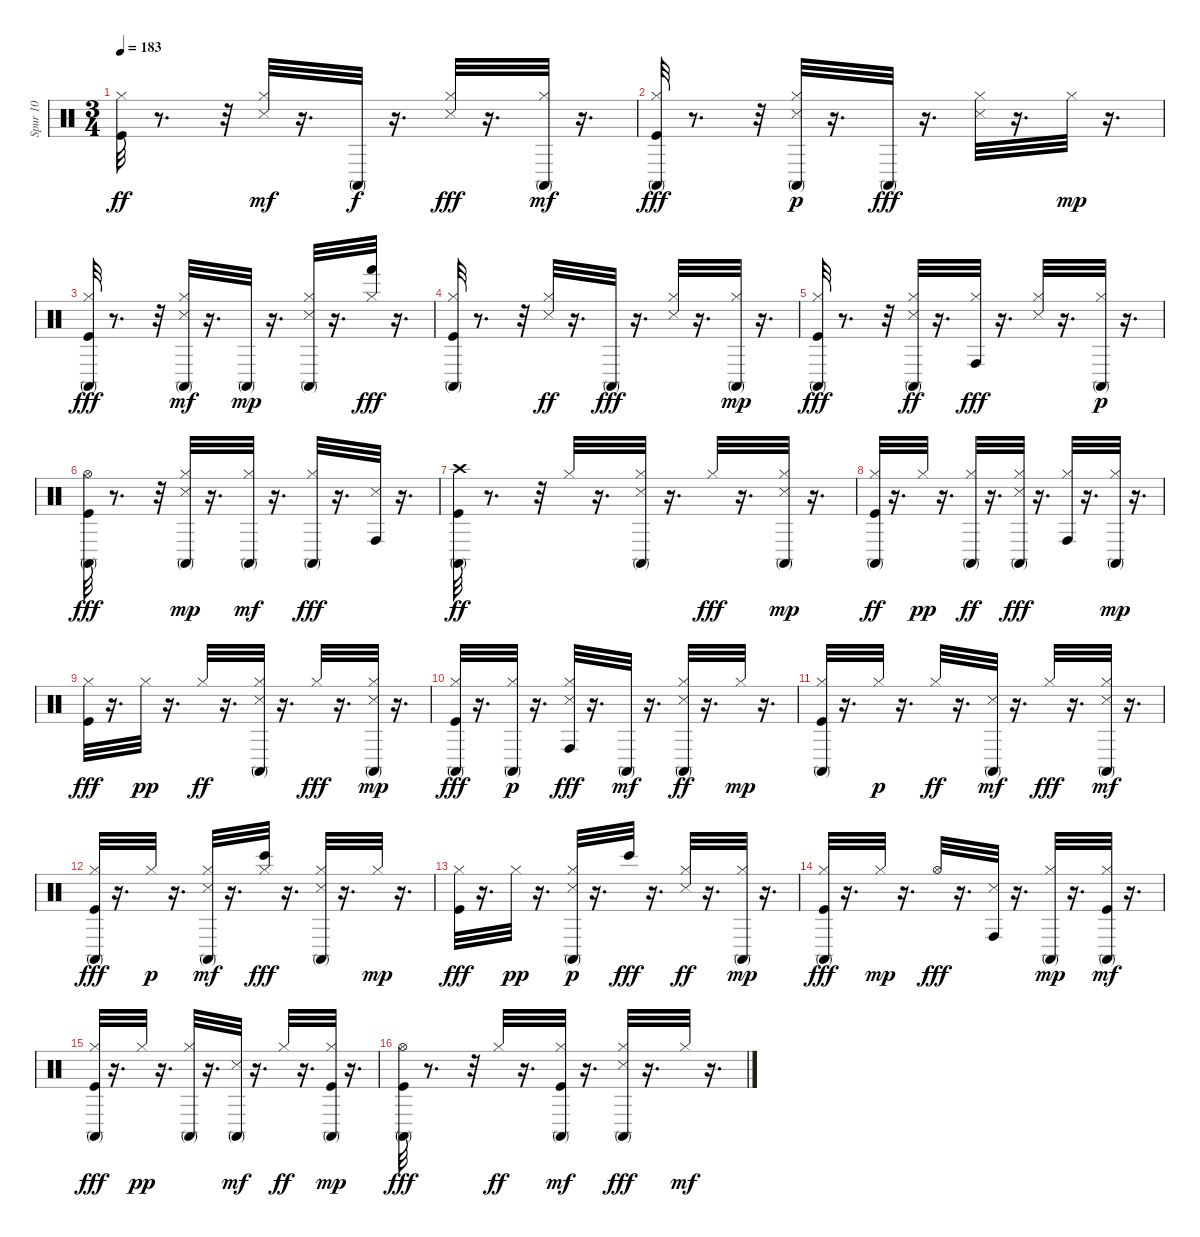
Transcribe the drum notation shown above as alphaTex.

\track ("Spur 10" "Spur 10") {instrument percussion}
\staff {score}
\articulation defaults
\ts (3 4)
\tempo 183
\clef neutral
\ks c
("Kick (hit)" "Hi-Hat (closed)").32{dy ff} r.8{d} r.32 ("Snare (side stick) 3" "Hi-Hat (closed)").32{dy mf} r.16{d} "Conga high (mute)".32{dy f} r.16{d} ("Snare (side stick) 3" "Hi-Hat (closed)").32{dy fff} r.16{d} ("Hi-Hat (closed)" "Conga high (mute)").32{dy mf} r.16{d} |
("Kick (hit)" "Hi-Hat (closed)" "Conga high (mute)").32{dy fff} r.8{d} r.32 ("Snare (side stick) 3" "Hi-Hat (closed)" "Conga high (mute)").32{dy p} r.16{d} "Conga high (mute)".32{dy fff} r.16{d} ("Snare (side stick) 3" "Hi-Hat (closed)").32 r.16{d} "Hi-Hat (closed)".32{dy mp} r.16{d} |
("Kick (hit)" "Hi-Hat (closed)" "Conga high (mute)").32{dy fff} r.8{d} r.32 ("Snare (side stick) 3" "Hi-Hat (closed)" "Conga high (mute)").32{dy mf} r.16{d} "Conga high (mute)".32{dy mp} r.16{d} ("Snare (side stick) 3" "Hi-Hat (closed)" "Conga high (mute)").32 r.16{d} ("Hi-Hat (closed)" "Hand (hit)").32{dy fff} r.16{d} |
("Kick (hit)" "Hi-Hat (closed)" "Conga high (mute)").32 r.8{d} r.32 ("Snare (side stick) 3" "Hi-Hat (closed)").32{dy ff} r.16{d} "Conga high (mute)".32{dy fff} r.16{d} ("Snare (side stick) 3" "Hi-Hat (closed)").32 r.16{d} ("Hi-Hat (closed)" "Conga high (mute)").32{dy mp} r.16{d} |
("Kick (hit)" "Hi-Hat (closed)" "Conga high (mute)").32{dy fff} r.8{d} r.32 ("Snare (side stick) 3" "Hi-Hat (closed)" "Conga high (mute)").32{dy ff} r.16{d} ("Hi-Hat (closed)" "Conga high (hit)").32{dy fff} r.16{d} ("Snare (side stick) 3" "Hi-Hat (closed)").32 r.16{d} ("Hi-Hat (closed)" "Conga high (mute)").32{dy p} r.16{d} |
("Kick (hit)" "Hi-Hat (open)" "Conga high (mute)").32{dy fff} r.8{d} r.32 ("Snare (side stick) 3" "Hi-Hat (closed)" "Conga high (mute)").32{dy mp} r.16{d} ("Hi-Hat (closed)" "Conga high (mute)").32{dy mf} r.16{d} ("Hi-Hat (closed)" "Conga high (mute)").32{dy fff} r.16{d} ("Snare (side stick) 3" "Conga high (hit)").32 r.16{d} |
("Kick (hit)" "Crash high (hit)" "Conga high (mute)").32{dy ff} r.8{d} r.32 "Hi-Hat (closed)".32 r.16{d} ("Snare (side stick) 3" "Hi-Hat (closed)" "Conga high (mute)").32 r.16{d} "Hi-Hat (closed)".32{dy fff} r.16{d} ("Snare (side stick) 3" "Hi-Hat (closed)" "Conga high (mute)").32{dy mp} r.16{d} |
("Kick (hit)" "Hi-Hat (closed)" "Conga high (mute)").32{dy ff} r.16{d} "Hi-Hat (closed)".32{dy pp} r.16{d} ("Hi-Hat (closed)" "Conga high (mute)").32{dy ff} r.16{d} ("Snare (side stick) 3" "Hi-Hat (closed)" "Conga high (mute)").32{dy fff} r.16{d} ("Hi-Hat (closed)" "Conga high (hit)").32 r.16{d} ("Hi-Hat (closed)" "Conga high (mute)").32{dy mp} r.16{d} |
("Kick (hit)" "Hi-Hat (closed)").32{dy fff} r.16{d} "Hi-Hat (closed)".32{dy pp} r.16{d} "Hi-Hat (closed)".32{dy ff} r.16{d} ("Snare (side stick) 3" "Hi-Hat (closed)" "Conga high (mute)").32 r.16{d} "Hi-Hat (closed)".32{dy fff} r.16{d} ("Snare (side stick) 3" "Hi-Hat (closed)" "Conga high (mute)").32{dy mp} r.16{d} |
("Kick (hit)" "Hi-Hat (closed)" "Conga high (mute)").32{dy fff} r.16{d} ("Hi-Hat (closed)" "Conga high (mute)").32{dy p} r.16{d} ("Snare (side stick) 3" "Hi-Hat (closed)" "Conga high (hit)").32{dy fff} r.16{d} "Conga high (mute)".32{dy mf} r.16{d} ("Snare (side stick) 3" "Hi-Hat (closed)" "Conga high (mute)").32{dy ff} r.16{d} "Hi-Hat (closed)".32{dy mp} r.16{d} |
("Kick (hit)" "Hi-Hat (closed)" "Conga high (mute)").32 r.16{d} "Hi-Hat (closed)".32{dy p} r.16{d} "Hi-Hat (closed)".32{dy ff} r.16{d} ("Snare (side stick) 3" "Conga high (mute)").32{dy mf} r.16{d} "Hi-Hat (closed)".32{dy fff} r.16{d} ("Snare (side stick) 3" "Hi-Hat (closed)" "Conga high (mute)").32{dy mf} r.16{d} |
("Kick (hit)" "Hi-Hat (closed)" "Conga high (mute)").32{dy fff} r.16{d} "Hi-Hat (closed)".32{dy p} r.16{d} ("Snare (side stick) 3" "Hi-Hat (closed)" "Conga high (mute)").32{dy mf} r.16{d} ("Hi-Hat (closed)" "Bongo High (hit)").32{dy fff} r.16{d} ("Snare (side stick) 3" "Hi-Hat (closed)" "Conga high (mute)").32 r.16{d} "Hi-Hat (closed)".32{dy mp} r.16{d} |
("Kick (hit)" "Hi-Hat (closed)").32{dy fff} r.16{d} "Hi-Hat (closed)".32{dy pp} r.16{d} ("Snare (side stick) 3" "Hi-Hat (closed)" "Conga high (mute)").32{dy p} r.16{d} "Bongo High (hit)".32{dy fff} r.16{d} ("Snare (side stick) 3" "Hi-Hat (closed)").32{dy ff} r.16{d} ("Hi-Hat (closed)" "Conga high (mute)").32{dy mp} r.16{d} |
("Kick (hit)" "Hi-Hat (closed)" "Conga high (mute)").32{dy fff} r.16{d} "Hi-Hat (closed)".32{dy mp} r.16{d} "Hi-Hat (open)".32{dy fff} r.16{d} ("Snare (side stick) 3" "Conga high (hit)").32 r.16{d} ("Hi-Hat (closed)" "Conga high (mute)").32{dy mp} r.16{d} ("Kick (hit)" "Hi-Hat (closed)" "Conga high (mute)").32{dy mf} r.16{d} |
("Kick (hit)" "Hi-Hat (closed)" "Conga high (mute)").32{dy fff} r.16{d} "Hi-Hat (closed)".32{dy pp} r.16{d} ("Hi-Hat (closed)" "Conga high (mute)").32 r.16{d} ("Snare (side stick) 3" "Conga high (mute)").32{dy mf} r.16{d} "Hi-Hat (closed)".32{dy ff} r.16{d} ("Kick (hit)" "Hi-Hat (closed)" "Conga high (mute)").32{dy mp} r.16{d} |
("Kick (hit)" "Hi-Hat (open)" "Conga high (mute)").32{dy fff} r.8{d} r.32 "Hi-Hat (closed)".32{dy ff} r.16{d} ("Kick (hit)" "Hi-Hat (closed)" "Conga high (mute)").32{dy mf} r.16{d} ("Snare (side stick) 3" "Hi-Hat (closed)" "Conga high (mute)").32{dy fff} r.16{d} "Hi-Hat (closed)".32{dy mf} r.16{d}
